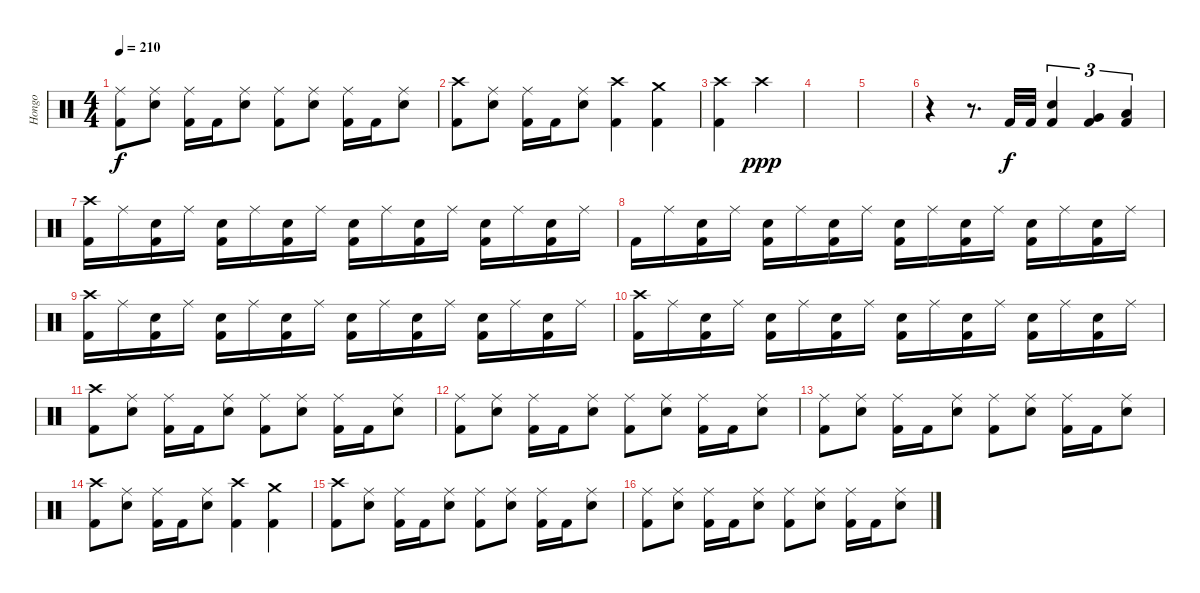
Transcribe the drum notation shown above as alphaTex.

\track ("Hongo" "Hongo") {instrument percussion}
\staff {score}
\articulation defaults
\ts (4 4)
\tempo 210
\clef neutral
\ks c
("Ride (middle)" "Kick (hit) 2").8{dy f} ("Ride (middle)" "Electric Snare (hit)").8 ("Ride (middle)" "Kick (hit) 2").16 "Kick (hit) 2".16 ("Ride (middle)" "Electric Snare (hit)").8 ("Ride (middle)" "Kick (hit) 2").8 ("Ride (middle)" "Electric Snare (hit)").8 ("Ride (middle)" "Kick (hit) 2").16 "Kick (hit) 2".16 ("Ride (middle)" "Electric Snare (hit)").8 |
("Crash high (hit)" "Kick (hit) 2").8 ("Ride (middle)" "Electric Snare (hit)").8 ("Ride (middle)" "Kick (hit) 2").16 "Kick (hit) 2".16 ("Ride (middle)" "Electric Snare (hit)").8 ("Crash high (hit)" "Kick (hit) 2").4 ("Crash medium (hit)" "Kick (hit) 2").4 |
("Crash high (hit)" "Kick (hit) 2").4 "Crash high (hit)".4{dy ppp} |
|
|
r.4 r.8{d} "Kick (hit) 2".32{dy f} "Kick (hit) 2".32 ("Electric Snare (hit)" "Kick (hit) 2").4{tu (3 2)} ("Very Low Tom (hit)" "Kick (hit) 2").4{tu (3 2)} ("Low Floor Tom (hit)" "Kick (hit) 2").4{tu (3 2)} |
("Crash high (hit)" "Kick (hit) 2").16 "Ride (middle)".16 ("Electric Snare (hit)" "Kick (hit) 2").16 "Ride (middle)".16 ("Electric Snare (hit)" "Kick (hit) 2").16 "Ride (middle)".16 ("Electric Snare (hit)" "Kick (hit) 2").16 "Ride (middle)".16 ("Electric Snare (hit)" "Kick (hit) 2").16 "Ride (middle)".16 ("Electric Snare (hit)" "Kick (hit) 2").16 "Ride (middle)".16 ("Electric Snare (hit)" "Kick (hit) 2").16 "Ride (middle)".16 ("Electric Snare (hit)" "Kick (hit) 2").16 "Ride (middle)".16 |
"Kick (hit) 2".16 "Ride (middle)".16 ("Electric Snare (hit)" "Kick (hit) 2").16 "Ride (middle)".16 ("Electric Snare (hit)" "Kick (hit) 2").16 "Ride (middle)".16 ("Electric Snare (hit)" "Kick (hit) 2").16 "Ride (middle)".16 ("Electric Snare (hit)" "Kick (hit) 2").16 "Ride (middle)".16 ("Electric Snare (hit)" "Kick (hit) 2").16 "Ride (middle)".16 ("Electric Snare (hit)" "Kick (hit) 2").16 "Ride (middle)".16 ("Electric Snare (hit)" "Kick (hit) 2").16 "Ride (middle)".16 |
("Crash high (hit)" "Kick (hit) 2").16 "Ride (middle)".16 ("Electric Snare (hit)" "Kick (hit) 2").16 "Ride (middle)".16 ("Electric Snare (hit)" "Kick (hit) 2").16 "Ride (middle)".16 ("Electric Snare (hit)" "Kick (hit) 2").16 "Ride (middle)".16 ("Electric Snare (hit)" "Kick (hit) 2").16 "Ride (middle)".16 ("Electric Snare (hit)" "Kick (hit) 2").16 "Ride (middle)".16 ("Electric Snare (hit)" "Kick (hit) 2").16 "Ride (middle)".16 ("Electric Snare (hit)" "Kick (hit) 2").16 "Ride (middle)".16 |
("Crash high (hit)" "Kick (hit) 2").16 "Ride (middle)".16 ("Electric Snare (hit)" "Kick (hit) 2").16 "Ride (middle)".16 ("Electric Snare (hit)" "Kick (hit) 2").16 "Ride (middle)".16 ("Electric Snare (hit)" "Kick (hit) 2").16 "Ride (middle)".16 ("Electric Snare (hit)" "Kick (hit) 2").16 "Ride (middle)".16 ("Electric Snare (hit)" "Kick (hit) 2").16 "Ride (middle)".16 ("Electric Snare (hit)" "Kick (hit) 2").16 "Ride (middle)".16 ("Electric Snare (hit)" "Kick (hit) 2").16 "Ride (middle)".16 |
("Crash high (hit)" "Kick (hit) 2").8 ("Ride (middle)" "Electric Snare (hit)").8 ("Ride (middle)" "Kick (hit) 2").16 "Kick (hit) 2".16 ("Ride (middle)" "Electric Snare (hit)").8 ("Ride (middle)" "Kick (hit) 2").8 ("Ride (middle)" "Electric Snare (hit)").8 ("Ride (middle)" "Kick (hit) 2").16 "Kick (hit) 2".16 ("Ride (middle)" "Electric Snare (hit)").8 |
("Ride (middle)" "Kick (hit) 2").8 ("Ride (middle)" "Electric Snare (hit)").8 ("Ride (middle)" "Kick (hit) 2").16 "Kick (hit) 2".16 ("Ride (middle)" "Electric Snare (hit)").8 ("Ride (middle)" "Kick (hit) 2").8 ("Ride (middle)" "Electric Snare (hit)").8 ("Ride (middle)" "Kick (hit) 2").16 "Kick (hit) 2".16 ("Ride (middle)" "Electric Snare (hit)").8 |
("Ride (middle)" "Kick (hit) 2").8 ("Ride (middle)" "Electric Snare (hit)").8 ("Ride (middle)" "Kick (hit) 2").16 "Kick (hit) 2".16 ("Ride (middle)" "Electric Snare (hit)").8 ("Ride (middle)" "Kick (hit) 2").8 ("Ride (middle)" "Electric Snare (hit)").8 ("Ride (middle)" "Kick (hit) 2").16 "Kick (hit) 2".16 ("Ride (middle)" "Electric Snare (hit)").8 |
("Crash high (hit)" "Kick (hit) 2").8 ("Ride (middle)" "Electric Snare (hit)").8 ("Ride (middle)" "Kick (hit) 2").16 "Kick (hit) 2".16 ("Ride (middle)" "Electric Snare (hit)").8 ("Crash high (hit)" "Kick (hit) 2").4 ("Crash medium (hit)" "Kick (hit) 2").4 |
("Crash high (hit)" "Kick (hit) 2").8 ("Ride (middle)" "Electric Snare (hit)").8 ("Ride (middle)" "Kick (hit) 2").16 "Kick (hit) 2".16 ("Ride (middle)" "Electric Snare (hit)").8 ("Ride (middle)" "Kick (hit) 2").8 ("Ride (middle)" "Electric Snare (hit)").8 ("Ride (middle)" "Kick (hit) 2").16 "Kick (hit) 2".16 ("Ride (middle)" "Electric Snare (hit)").8 |
("Ride (middle)" "Kick (hit) 2").8 ("Ride (middle)" "Electric Snare (hit)").8 ("Ride (middle)" "Kick (hit) 2").16 "Kick (hit) 2".16 ("Ride (middle)" "Electric Snare (hit)").8 ("Ride (middle)" "Kick (hit) 2").8 ("Ride (middle)" "Electric Snare (hit)").8 ("Ride (middle)" "Kick (hit) 2").16 "Kick (hit) 2".16 ("Ride (middle)" "Electric Snare (hit)").8
